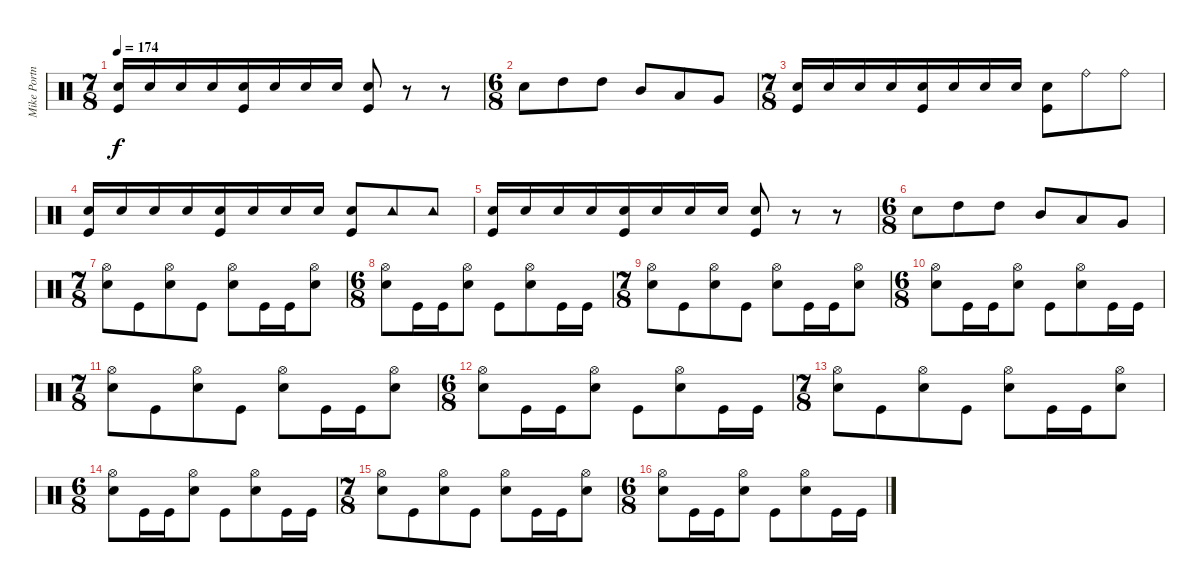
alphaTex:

\track ("Mike Portnoy" "Mike Portn") {instrument percussion}
\staff {score}
\articulation defaults
\ts (7 8)
\tempo 174
\clef neutral
\ks c
("Snare (hit) 2" "Kick (hit)").16{dy f} "Snare (hit) 2".16 "Snare (hit) 2".16 "Snare (hit) 2".16 ("Snare (hit) 2" "Kick (hit)").16 "Snare (hit) 2".16 "Snare (hit) 2".16 "Snare (hit) 2".16 ("Snare (hit) 2" "Kick (hit)").8 r.8 r.8 |
\ts (6 8)
"Snare (hit) 2".8 "High Tom (hit)".8 "High Tom (hit)".8 "Mid Tom (hit)".8 "Low Tom (hit)".8 "Very Low Tom (hit)".8 |
\ts (7 8)
("Snare (hit) 2" "Kick (hit)").16 "Snare (hit) 2".16 "Snare (hit) 2".16 "Snare (hit) 2".16 ("Snare (hit) 2" "Kick (hit)").16 "Snare (hit) 2".16 "Snare (hit) 2".16 "Snare (hit) 2".16 ("Snare (hit) 2" "Kick (hit)").8 "Ride (bell)".8 "Ride (bell)".8 |
("Snare (hit) 2" "Kick (hit)").16 "Snare (hit) 2".16 "Snare (hit) 2".16 "Snare (hit) 2".16 ("Snare (hit) 2" "Kick (hit)").16 "Snare (hit) 2".16 "Snare (hit) 2".16 "Snare (hit) 2".16 ("Snare (hit) 2" "Kick (hit)").8 "Tambourine (hit)".8 "Tambourine (hit)".8 |
("Snare (hit) 2" "Kick (hit)").16 "Snare (hit) 2".16 "Snare (hit) 2".16 "Snare (hit) 2".16 ("Snare (hit) 2" "Kick (hit)").16 "Snare (hit) 2".16 "Snare (hit) 2".16 "Snare (hit) 2".16 ("Snare (hit) 2" "Kick (hit)").8 r.8 r.8 |
\ts (6 8)
"Snare (hit) 2".8 "High Tom (hit)".8 "High Tom (hit)".8 "Mid Tom (hit)".8 "Low Tom (hit)".8 "Very Low Tom (hit)".8 |
\ts (7 8)
("Snare (hit) 2" "Hi-Hat (open)").8 "Kick (hit)".8 ("Snare (hit) 2" "Hi-Hat (open)").8 "Kick (hit)".8 ("Snare (hit) 2" "Hi-Hat (open)").8 "Kick (hit)".16 "Kick (hit)".16 ("Snare (hit) 2" "Hi-Hat (open)").8 |
\ts (6 8)
("Snare (hit) 2" "Hi-Hat (open)").8 "Kick (hit)".16 "Kick (hit)".16 ("Snare (hit) 2" "Hi-Hat (open)").8 "Kick (hit)".8 ("Snare (hit) 2" "Hi-Hat (open)").8 "Kick (hit)".16 "Kick (hit)".16 |
\ts (7 8)
("Snare (hit) 2" "Hi-Hat (open)").8 "Kick (hit)".8 ("Snare (hit) 2" "Hi-Hat (open)").8 "Kick (hit)".8 ("Snare (hit) 2" "Hi-Hat (open)").8 "Kick (hit)".16 "Kick (hit)".16 ("Snare (hit) 2" "Hi-Hat (open)").8 |
\ts (6 8)
("Snare (hit) 2" "Hi-Hat (open)").8 "Kick (hit)".16 "Kick (hit)".16 ("Snare (hit) 2" "Hi-Hat (open)").8 "Kick (hit)".8 ("Snare (hit) 2" "Hi-Hat (open)").8 "Kick (hit)".16 "Kick (hit)".16 |
\ts (7 8)
("Snare (hit) 2" "Hi-Hat (open)").8 "Kick (hit)".8 ("Snare (hit) 2" "Hi-Hat (open)").8 "Kick (hit)".8 ("Snare (hit) 2" "Hi-Hat (open)").8 "Kick (hit)".16 "Kick (hit)".16 ("Snare (hit) 2" "Hi-Hat (open)").8 |
\ts (6 8)
("Snare (hit) 2" "Hi-Hat (open)").8 "Kick (hit)".16 "Kick (hit)".16 ("Snare (hit) 2" "Hi-Hat (open)").8 "Kick (hit)".8 ("Snare (hit) 2" "Hi-Hat (open)").8 "Kick (hit)".16 "Kick (hit)".16 |
\ts (7 8)
("Snare (hit) 2" "Hi-Hat (open)").8 "Kick (hit)".8 ("Snare (hit) 2" "Hi-Hat (open)").8 "Kick (hit)".8 ("Snare (hit) 2" "Hi-Hat (open)").8 "Kick (hit)".16 "Kick (hit)".16 ("Snare (hit) 2" "Hi-Hat (open)").8 |
\ts (6 8)
("Snare (hit) 2" "Hi-Hat (open)").8 "Kick (hit)".16 "Kick (hit)".16 ("Snare (hit) 2" "Hi-Hat (open)").8 "Kick (hit)".8 ("Snare (hit) 2" "Hi-Hat (open)").8 "Kick (hit)".16 "Kick (hit)".16 |
\ts (7 8)
("Snare (hit) 2" "Hi-Hat (open)").8 "Kick (hit)".8 ("Snare (hit) 2" "Hi-Hat (open)").8 "Kick (hit)".8 ("Snare (hit) 2" "Hi-Hat (open)").8 "Kick (hit)".16 "Kick (hit)".16 ("Snare (hit) 2" "Hi-Hat (open)").8 |
\ts (6 8)
("Snare (hit) 2" "Hi-Hat (open)").8 "Kick (hit)".16 "Kick (hit)".16 ("Snare (hit) 2" "Hi-Hat (open)").8 "Kick (hit)".8 ("Snare (hit) 2" "Hi-Hat (open)").8 "Kick (hit)".16 "Kick (hit)".16
